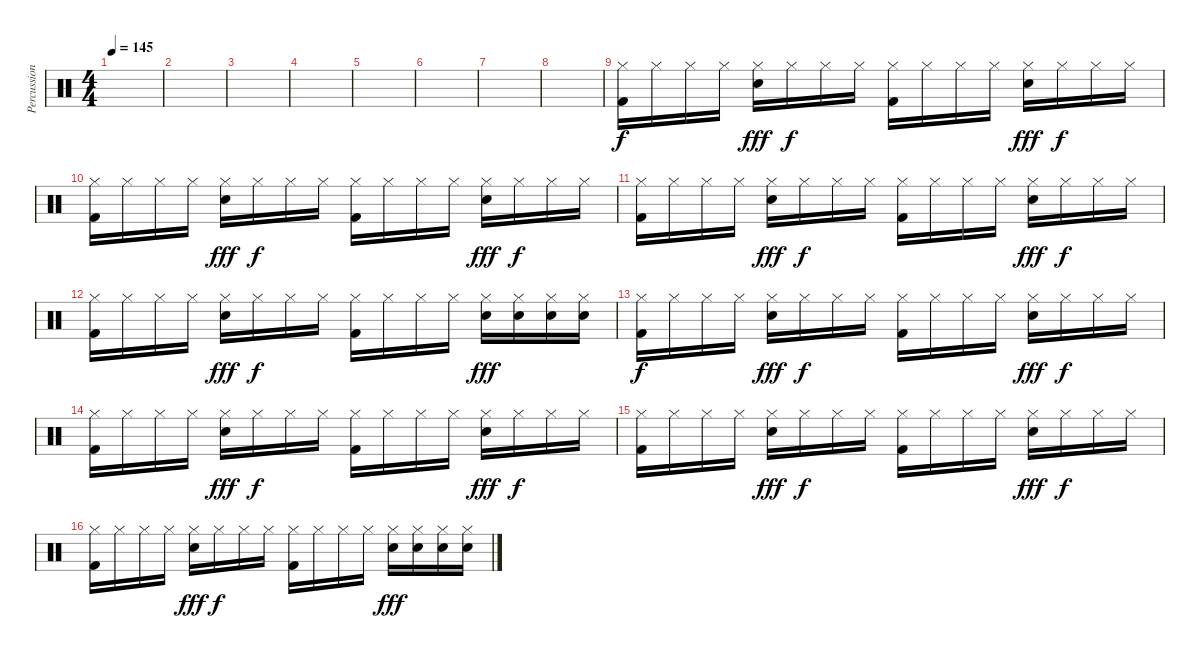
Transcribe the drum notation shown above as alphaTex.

\track ("Percussion" "Percussion") {instrument percussion}
\staff {score}
\articulation defaults
\ts (4 4)
\tempo 145
\clef neutral
\ks c
|
|
|
|
|
|
|
|
("Hi-Hat (closed)" "Kick (hit) 2").16 "Hi-Hat (closed)".16 "Hi-Hat (closed)".16 "Hi-Hat (closed)".16 ("Hi-Hat (closed)" "Snare (hit) 2").16{dy fff} "Hi-Hat (closed)".16{dy f} "Hi-Hat (closed)".16 "Hi-Hat (closed)".16 ("Hi-Hat (closed)" "Kick (hit) 2").16 "Hi-Hat (closed)".16 "Hi-Hat (closed)".16 "Hi-Hat (closed)".16 ("Hi-Hat (closed)" "Snare (hit) 2").16{dy fff} "Hi-Hat (closed)".16{dy f} "Hi-Hat (closed)".16 "Hi-Hat (closed)".16 |
("Hi-Hat (closed)" "Kick (hit) 2").16 "Hi-Hat (closed)".16 "Hi-Hat (closed)".16 "Hi-Hat (closed)".16 ("Hi-Hat (closed)" "Snare (hit) 2").16{dy fff} "Hi-Hat (closed)".16{dy f} "Hi-Hat (closed)".16 "Hi-Hat (closed)".16 ("Hi-Hat (closed)" "Kick (hit) 2").16 "Hi-Hat (closed)".16 "Hi-Hat (closed)".16 "Hi-Hat (closed)".16 ("Hi-Hat (closed)" "Snare (hit) 2").16{dy fff} "Hi-Hat (closed)".16{dy f} "Hi-Hat (closed)".16 "Hi-Hat (closed)".16 |
("Hi-Hat (closed)" "Kick (hit) 2").16 "Hi-Hat (closed)".16 "Hi-Hat (closed)".16 "Hi-Hat (closed)".16 ("Hi-Hat (closed)" "Snare (hit) 2").16{dy fff} "Hi-Hat (closed)".16{dy f} "Hi-Hat (closed)".16 "Hi-Hat (closed)".16 ("Hi-Hat (closed)" "Kick (hit) 2").16 "Hi-Hat (closed)".16 "Hi-Hat (closed)".16 "Hi-Hat (closed)".16 ("Hi-Hat (closed)" "Snare (hit) 2").16{dy fff} "Hi-Hat (closed)".16{dy f} "Hi-Hat (closed)".16 "Hi-Hat (closed)".16 |
("Hi-Hat (closed)" "Kick (hit) 2").16 "Hi-Hat (closed)".16 "Hi-Hat (closed)".16 "Hi-Hat (closed)".16 ("Hi-Hat (closed)" "Snare (hit) 2").16{dy fff} "Hi-Hat (closed)".16{dy f} "Hi-Hat (closed)".16 "Hi-Hat (closed)".16 ("Hi-Hat (closed)" "Kick (hit) 2").16 "Hi-Hat (closed)".16 "Hi-Hat (closed)".16 "Hi-Hat (closed)".16 ("Hi-Hat (closed)" "Snare (hit) 2").16{dy fff} ("Hi-Hat (closed)" "Snare (hit) 2").16 ("Hi-Hat (closed)" "Snare (hit) 2").16 ("Hi-Hat (closed)" "Snare (hit) 2").16 |
("Hi-Hat (closed)" "Kick (hit) 2").16{dy f} "Hi-Hat (closed)".16 "Hi-Hat (closed)".16 "Hi-Hat (closed)".16 ("Hi-Hat (closed)" "Snare (hit) 2").16{dy fff} "Hi-Hat (closed)".16{dy f} "Hi-Hat (closed)".16 "Hi-Hat (closed)".16 ("Hi-Hat (closed)" "Kick (hit) 2").16 "Hi-Hat (closed)".16 "Hi-Hat (closed)".16 "Hi-Hat (closed)".16 ("Hi-Hat (closed)" "Snare (hit) 2").16{dy fff} "Hi-Hat (closed)".16{dy f} "Hi-Hat (closed)".16 "Hi-Hat (closed)".16 |
("Hi-Hat (closed)" "Kick (hit) 2").16 "Hi-Hat (closed)".16 "Hi-Hat (closed)".16 "Hi-Hat (closed)".16 ("Hi-Hat (closed)" "Snare (hit) 2").16{dy fff} "Hi-Hat (closed)".16{dy f} "Hi-Hat (closed)".16 "Hi-Hat (closed)".16 ("Hi-Hat (closed)" "Kick (hit) 2").16 "Hi-Hat (closed)".16 "Hi-Hat (closed)".16 "Hi-Hat (closed)".16 ("Hi-Hat (closed)" "Snare (hit) 2").16{dy fff} "Hi-Hat (closed)".16{dy f} "Hi-Hat (closed)".16 "Hi-Hat (closed)".16 |
("Hi-Hat (closed)" "Kick (hit) 2").16 "Hi-Hat (closed)".16 "Hi-Hat (closed)".16 "Hi-Hat (closed)".16 ("Hi-Hat (closed)" "Snare (hit) 2").16{dy fff} "Hi-Hat (closed)".16{dy f} "Hi-Hat (closed)".16 "Hi-Hat (closed)".16 ("Hi-Hat (closed)" "Kick (hit) 2").16 "Hi-Hat (closed)".16 "Hi-Hat (closed)".16 "Hi-Hat (closed)".16 ("Hi-Hat (closed)" "Snare (hit) 2").16{dy fff} "Hi-Hat (closed)".16{dy f} "Hi-Hat (closed)".16 "Hi-Hat (closed)".16 |
("Hi-Hat (closed)" "Kick (hit) 2").16 "Hi-Hat (closed)".16 "Hi-Hat (closed)".16 "Hi-Hat (closed)".16 ("Hi-Hat (closed)" "Snare (hit) 2").16{dy fff} "Hi-Hat (closed)".16{dy f} "Hi-Hat (closed)".16 "Hi-Hat (closed)".16 ("Hi-Hat (closed)" "Kick (hit) 2").16 "Hi-Hat (closed)".16 "Hi-Hat (closed)".16 "Hi-Hat (closed)".16 ("Hi-Hat (closed)" "Snare (hit) 2").16{dy fff} ("Hi-Hat (closed)" "Snare (hit) 2").16 ("Hi-Hat (closed)" "Snare (hit) 2").16 ("Hi-Hat (closed)" "Snare (hit) 2").16
